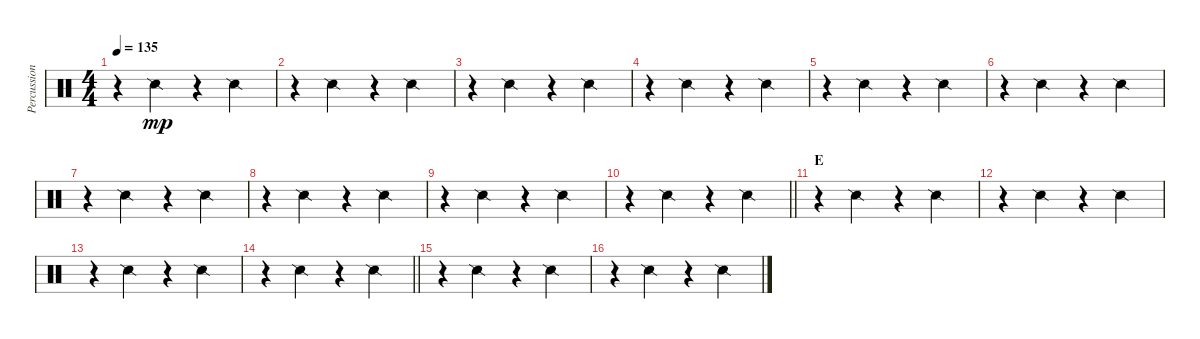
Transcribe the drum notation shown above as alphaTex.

\track ("Percussion" "Percussion") {instrument percussion}
\staff {score}
\articulation defaults
\ts (4 4)
\tempo 135
\clef neutral
\ks c
r.4{dy mp} "Snare (side stick) 2".4 r.4 "Snare (side stick) 2".4 |
r.4 "Snare (side stick) 2".4 r.4 "Snare (side stick) 2".4 |
r.4 "Snare (side stick) 2".4 r.4 "Snare (side stick) 2".4 |
r.4 "Snare (side stick) 2".4 r.4 "Snare (side stick) 2".4 |
r.4 "Snare (side stick) 2".4 r.4 "Snare (side stick) 2".4 |
r.4 "Snare (side stick) 2".4 r.4 "Snare (side stick) 2".4 |
r.4 "Snare (side stick) 2".4 r.4 "Snare (side stick) 2".4 |
r.4 "Snare (side stick) 2".4 r.4 "Snare (side stick) 2".4 |
r.4 "Snare (side stick) 2".4 r.4 "Snare (side stick) 2".4 |
\barLineRight lightlight
r.4 "Snare (side stick) 2".4 r.4 "Snare (side stick) 2".4 |
\section ("" "E")
r.4 "Snare (side stick) 2".4 r.4 "Snare (side stick) 2".4 |
r.4 "Snare (side stick) 2".4 r.4 "Snare (side stick) 2".4 |
r.4 "Snare (side stick) 2".4 r.4 "Snare (side stick) 2".4 |
\barLineRight lightlight
r.4 "Snare (side stick) 2".4 r.4 "Snare (side stick) 2".4 |
r.4 "Snare (side stick) 2".4 r.4 "Snare (side stick) 2".4 |
r.4 "Snare (side stick) 2".4 r.4 "Snare (side stick) 2".4
